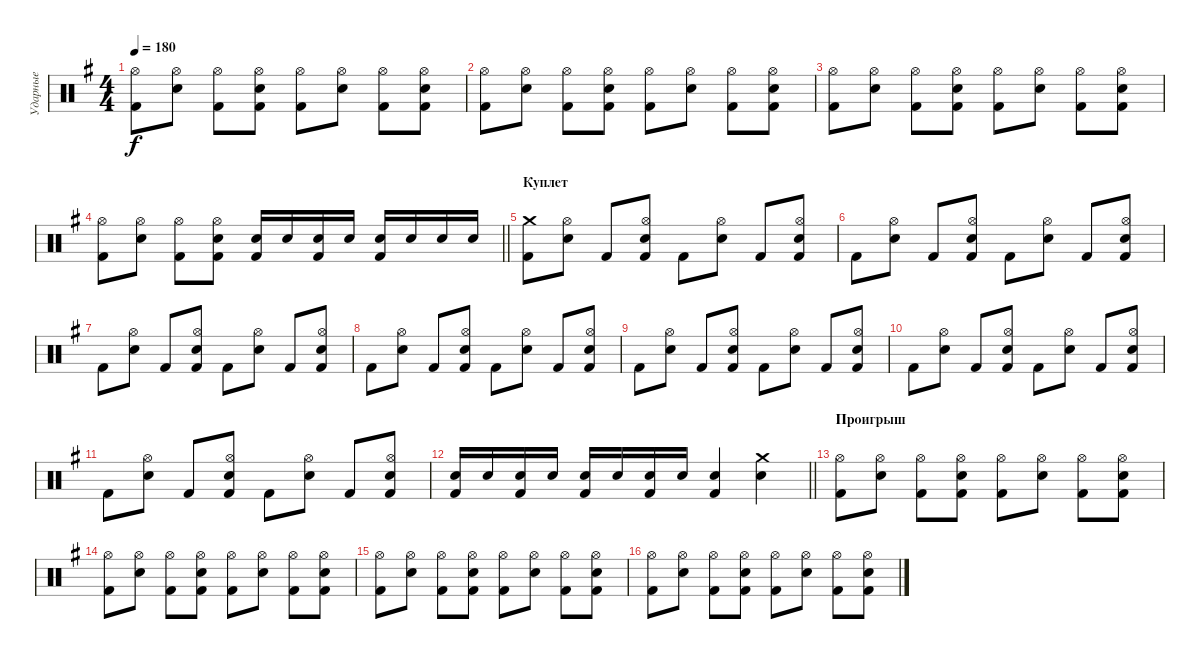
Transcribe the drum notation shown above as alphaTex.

\track ("Ударные" "Ударные") {instrument percussion}
\staff {score}
\articulation defaults
\ts (4 4)
\tempo 180
\clef neutral
\ks g
("Kick (hit) 2" "Hi-Hat (open)").8{dy f} ("Hi-Hat (open)" "Electric Snare (hit)").8 ("Kick (hit) 2" "Hi-Hat (open)").8 ("Kick (hit) 2" "Hi-Hat (open)" "Electric Snare (hit)").8 ("Kick (hit) 2" "Hi-Hat (open)").8 ("Hi-Hat (open)" "Electric Snare (hit)").8 ("Kick (hit) 2" "Hi-Hat (open)").8 ("Kick (hit) 2" "Hi-Hat (open)" "Electric Snare (hit)").8 |
("Kick (hit) 2" "Hi-Hat (open)").8 ("Hi-Hat (open)" "Electric Snare (hit)").8 ("Kick (hit) 2" "Hi-Hat (open)").8 ("Kick (hit) 2" "Hi-Hat (open)" "Electric Snare (hit)").8 ("Kick (hit) 2" "Hi-Hat (open)").8 ("Hi-Hat (open)" "Electric Snare (hit)").8 ("Kick (hit) 2" "Hi-Hat (open)").8 ("Kick (hit) 2" "Hi-Hat (open)" "Electric Snare (hit)").8 |
("Kick (hit) 2" "Hi-Hat (open)").8 ("Hi-Hat (open)" "Electric Snare (hit)").8 ("Kick (hit) 2" "Hi-Hat (open)").8 ("Kick (hit) 2" "Hi-Hat (open)" "Electric Snare (hit)").8 ("Kick (hit) 2" "Hi-Hat (open)").8 ("Hi-Hat (open)" "Electric Snare (hit)").8 ("Kick (hit) 2" "Hi-Hat (open)").8 ("Kick (hit) 2" "Hi-Hat (open)" "Electric Snare (hit)").8 |
\barLineRight lightlight
("Kick (hit) 2" "Hi-Hat (open)").8 ("Hi-Hat (open)" "Electric Snare (hit)").8 ("Kick (hit) 2" "Hi-Hat (open)").8 ("Kick (hit) 2" "Hi-Hat (open)" "Electric Snare (hit)").8 ("Kick (hit) 2" "Electric Snare (hit)").16 "Electric Snare (hit)".16 ("Kick (hit) 2" "Electric Snare (hit)").16 "Electric Snare (hit)".16 ("Kick (hit) 2" "Electric Snare (hit)").16 "Electric Snare (hit)".16 "Electric Snare (hit)".16 "Electric Snare (hit)".16 |
\section ("" "Куплет")
("Kick (hit) 2" "Crash medium (hit)").8 ("Hi-Hat (open)" "Electric Snare (hit)").8 "Kick (hit) 2".8 ("Kick (hit) 2" "Hi-Hat (open)" "Electric Snare (hit)").8 "Kick (hit) 2".8 ("Hi-Hat (open)" "Electric Snare (hit)").8 "Kick (hit) 2".8 ("Kick (hit) 2" "Hi-Hat (open)" "Electric Snare (hit)").8 |
"Kick (hit) 2".8 ("Hi-Hat (open)" "Electric Snare (hit)").8 "Kick (hit) 2".8 ("Kick (hit) 2" "Hi-Hat (open)" "Electric Snare (hit)").8 "Kick (hit) 2".8 ("Hi-Hat (open)" "Electric Snare (hit)").8 "Kick (hit) 2".8 ("Kick (hit) 2" "Hi-Hat (open)" "Electric Snare (hit)").8 |
"Kick (hit) 2".8 ("Hi-Hat (open)" "Electric Snare (hit)").8 "Kick (hit) 2".8 ("Kick (hit) 2" "Hi-Hat (open)" "Electric Snare (hit)").8 "Kick (hit) 2".8 ("Hi-Hat (open)" "Electric Snare (hit)").8 "Kick (hit) 2".8 ("Kick (hit) 2" "Hi-Hat (open)" "Electric Snare (hit)").8 |
"Kick (hit) 2".8 ("Hi-Hat (open)" "Electric Snare (hit)").8 "Kick (hit) 2".8 ("Kick (hit) 2" "Hi-Hat (open)" "Electric Snare (hit)").8 "Kick (hit) 2".8 ("Hi-Hat (open)" "Electric Snare (hit)").8 "Kick (hit) 2".8 ("Kick (hit) 2" "Hi-Hat (open)" "Electric Snare (hit)").8 |
"Kick (hit) 2".8 ("Hi-Hat (open)" "Electric Snare (hit)").8 "Kick (hit) 2".8 ("Kick (hit) 2" "Hi-Hat (open)" "Electric Snare (hit)").8 "Kick (hit) 2".8 ("Hi-Hat (open)" "Electric Snare (hit)").8 "Kick (hit) 2".8 ("Kick (hit) 2" "Hi-Hat (open)" "Electric Snare (hit)").8 |
"Kick (hit) 2".8 ("Hi-Hat (open)" "Electric Snare (hit)").8 "Kick (hit) 2".8 ("Kick (hit) 2" "Hi-Hat (open)" "Electric Snare (hit)").8 "Kick (hit) 2".8 ("Hi-Hat (open)" "Electric Snare (hit)").8 "Kick (hit) 2".8 ("Kick (hit) 2" "Hi-Hat (open)" "Electric Snare (hit)").8 |
"Kick (hit) 2".8 ("Hi-Hat (open)" "Electric Snare (hit)").8 "Kick (hit) 2".8 ("Kick (hit) 2" "Hi-Hat (open)" "Electric Snare (hit)").8 "Kick (hit) 2".8 ("Hi-Hat (open)" "Electric Snare (hit)").8 "Kick (hit) 2".8 ("Kick (hit) 2" "Hi-Hat (open)" "Electric Snare (hit)").8 |
\barLineRight lightlight
("Kick (hit) 2" "Electric Snare (hit)").16 "Electric Snare (hit)".16 ("Kick (hit) 2" "Electric Snare (hit)").16 "Electric Snare (hit)".16 ("Kick (hit) 2" "Electric Snare (hit)").16 "Electric Snare (hit)".16 ("Kick (hit) 2" "Electric Snare (hit)").16 "Electric Snare (hit)".16 ("Kick (hit) 2" "Electric Snare (hit)").4 ("Crash medium (hit)" "Electric Snare (hit)").4 |
\section ("" "Проигрыш")
("Kick (hit) 2" "Hi-Hat (open)").8 ("Hi-Hat (open)" "Electric Snare (hit)").8 ("Kick (hit) 2" "Hi-Hat (open)").8 ("Kick (hit) 2" "Hi-Hat (open)" "Electric Snare (hit)").8 ("Kick (hit) 2" "Hi-Hat (open)").8 ("Hi-Hat (open)" "Electric Snare (hit)").8 ("Kick (hit) 2" "Hi-Hat (open)").8 ("Kick (hit) 2" "Hi-Hat (open)" "Electric Snare (hit)").8 |
("Kick (hit) 2" "Hi-Hat (open)").8 ("Hi-Hat (open)" "Electric Snare (hit)").8 ("Kick (hit) 2" "Hi-Hat (open)").8 ("Kick (hit) 2" "Hi-Hat (open)" "Electric Snare (hit)").8 ("Kick (hit) 2" "Hi-Hat (open)").8 ("Hi-Hat (open)" "Electric Snare (hit)").8 ("Kick (hit) 2" "Hi-Hat (open)").8 ("Kick (hit) 2" "Hi-Hat (open)" "Electric Snare (hit)").8 |
("Kick (hit) 2" "Hi-Hat (open)").8 ("Hi-Hat (open)" "Electric Snare (hit)").8 ("Kick (hit) 2" "Hi-Hat (open)").8 ("Kick (hit) 2" "Hi-Hat (open)" "Electric Snare (hit)").8 ("Kick (hit) 2" "Hi-Hat (open)").8 ("Hi-Hat (open)" "Electric Snare (hit)").8 ("Kick (hit) 2" "Hi-Hat (open)").8 ("Kick (hit) 2" "Hi-Hat (open)" "Electric Snare (hit)").8 |
("Kick (hit) 2" "Hi-Hat (open)").8 ("Hi-Hat (open)" "Electric Snare (hit)").8 ("Kick (hit) 2" "Hi-Hat (open)").8 ("Kick (hit) 2" "Hi-Hat (open)" "Electric Snare (hit)").8 ("Kick (hit) 2" "Hi-Hat (open)").8 ("Hi-Hat (open)" "Electric Snare (hit)").8 ("Kick (hit) 2" "Hi-Hat (open)").8 ("Kick (hit) 2" "Hi-Hat (open)" "Electric Snare (hit)").8
